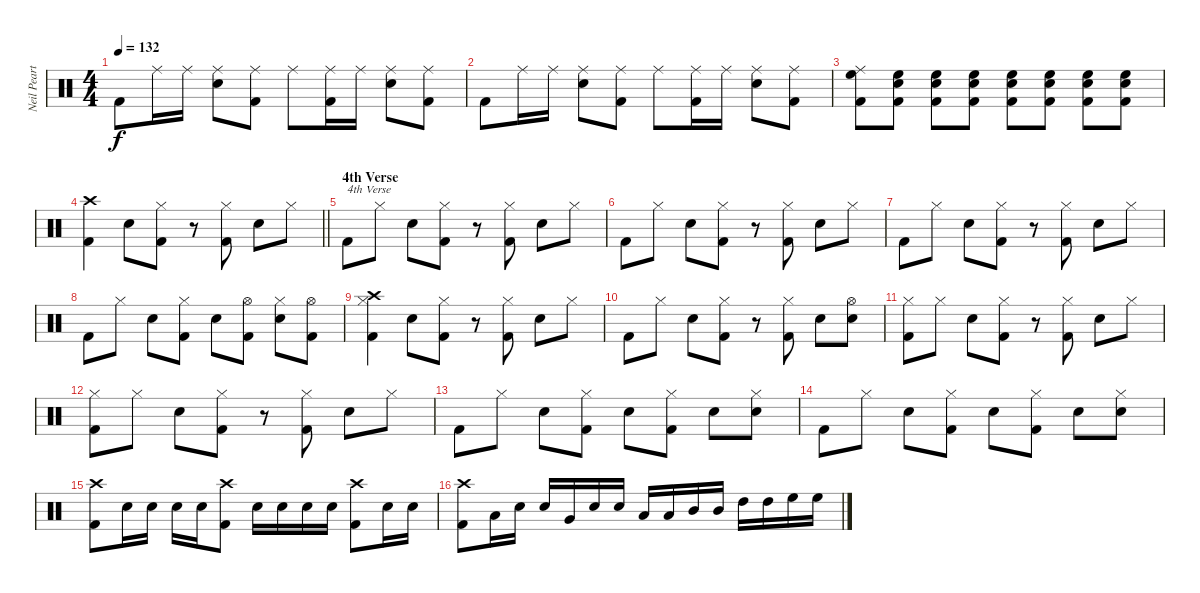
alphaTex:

\track ("Neil Peart" "Neil Peart") {instrument percussion}
\staff {score}
\articulation defaults
\ts (4 4)
\tempo 132
\clef neutral
\ks c "Kick (hit) 2".8{dy f} "Ride (middle)".16 "Ride (middle)".16
("Ride (middle)" "Electric Snare (hit)").8 ("Ride (middle)" "Kick (hit) 2").8 "Ride (middle)".8 ("Ride (middle)" "Kick (hit) 2").16 "Ride (middle)".16 ("Ride (middle)" "Electric Snare (hit)").8 ("Ride (middle)" "Kick (hit) 2").8 |
"Kick (hit) 2".8 "Ride (middle)".16 "Ride (middle)".16 ("Ride (middle)" "Electric Snare (hit)").8 ("Ride (middle)" "Kick (hit) 2").8 "Ride (middle)".8 ("Ride (middle)" "Kick (hit) 2").16 "Ride (middle)".16 ("Ride (middle)" "Electric Snare (hit)").8 ("Ride (middle)" "Kick (hit) 2").8 |
("Ride (middle)" "Kick (hit) 2" "High Floor Tom (hit)").8 ("Electric Snare (hit)" "Kick (hit) 2" "High Floor Tom (hit)").8 ("Electric Snare (hit)" "Kick (hit) 2" "High Floor Tom (hit)").8 ("Electric Snare (hit)" "Kick (hit) 2" "High Floor Tom (hit)").8 ("Electric Snare (hit)" "Kick (hit) 2" "High Floor Tom (hit)").8 ("Electric Snare (hit)" "Kick (hit) 2" "High Floor Tom (hit)").8 ("Electric Snare (hit)" "Kick (hit) 2" "High Floor Tom (hit)").8 ("Electric Snare (hit)" "Kick (hit) 2" "High Floor Tom (hit)").8 |
\barLineRight lightlight
("Crash high (hit)" "Kick (hit) 2").4 "Electric Snare (hit)".8 ("Hi-Hat (closed)" "Kick (hit) 2").8 r.8 ("Hi-Hat (closed)" "Kick (hit) 2").8 "Electric Snare (hit)".8 "Hi-Hat (closed)".8 |
\section ("" "4th Verse")
"Kick (hit) 2".8{txt "4th Verse"} "Hi-Hat (closed)".8 "Electric Snare (hit)".8 ("Hi-Hat (closed)" "Kick (hit) 2").8 r.8 ("Hi-Hat (closed)" "Kick (hit) 2").8 "Electric Snare (hit)".8 "Hi-Hat (closed)".8 |
"Kick (hit) 2".8 "Hi-Hat (closed)".8 "Electric Snare (hit)".8 ("Hi-Hat (closed)" "Kick (hit) 2").8 r.8 ("Hi-Hat (closed)" "Kick (hit) 2").8 "Electric Snare (hit)".8 "Hi-Hat (closed)".8 |
"Kick (hit) 2".8 "Hi-Hat (closed)".8 "Electric Snare (hit)".8 ("Hi-Hat (closed)" "Kick (hit) 2").8 r.8 ("Hi-Hat (closed)" "Kick (hit) 2").8 "Electric Snare (hit)".8 "Hi-Hat (closed)".8 |
"Kick (hit) 2".8 "Hi-Hat (closed)".8 "Electric Snare (hit)".8 ("Hi-Hat (closed)" "Kick (hit) 2").8 "Electric Snare (hit)".8 ("Hi-Hat (open)" "Kick (hit) 2").8 ("Hi-Hat (closed)" "Electric Snare (hit)").8 ("Hi-Hat (open)" "Kick (hit) 2").8 |
("Crash high (hit)" "Hi-Hat (closed)" "Kick (hit) 2").4 "Electric Snare (hit)".8 ("Hi-Hat (closed)" "Kick (hit) 2").8 r.8 ("Hi-Hat (closed)" "Kick (hit) 2").8 "Electric Snare (hit)".8 "Hi-Hat (closed)".8 |
"Kick (hit) 2".8 "Hi-Hat (closed)".8 "Electric Snare (hit)".8 ("Hi-Hat (closed)" "Kick (hit) 2").8 r.8 ("Hi-Hat (closed)" "Kick (hit) 2").8 "Electric Snare (hit)".8 ("Hi-Hat (open)" "Electric Snare (hit)").8 |
("Hi-Hat (closed)" "Kick (hit) 2").8 "Hi-Hat (closed)".8 "Electric Snare (hit)".8 ("Hi-Hat (closed)" "Kick (hit) 2").8 r.8 ("Hi-Hat (closed)" "Kick (hit) 2").8 "Electric Snare (hit)".8 "Hi-Hat (closed)".8 |
("Hi-Hat (closed)" "Kick (hit) 2").8 "Hi-Hat (closed)".8 "Electric Snare (hit)".8 ("Hi-Hat (closed)" "Kick (hit) 2").8 r.8 ("Hi-Hat (closed)" "Kick (hit) 2").8 "Electric Snare (hit)".8 "Hi-Hat (closed)".8 |
"Kick (hit) 2".8 "Hi-Hat (closed)".8 "Electric Snare (hit)".8 ("Hi-Hat (closed)" "Kick (hit) 2").8 "Electric Snare (hit)".8 ("Hi-Hat (closed)" "Kick (hit) 2").8 "Electric Snare (hit)".8 ("Hi-Hat (closed)" "Electric Snare (hit)").8 |
"Kick (hit) 2".8 "Hi-Hat (closed)".8 "Electric Snare (hit)".8 ("Hi-Hat (closed)" "Kick (hit) 2").8 "Electric Snare (hit)".8 ("Hi-Hat (closed)" "Kick (hit) 2").8 "Electric Snare (hit)".8 ("Hi-Hat (closed)" "Electric Snare (hit)").8 |
("Crash high (hit)" "Kick (hit) 2").8 "Electric Snare (hit)".16 "Electric Snare (hit)".16 "Electric Snare (hit)".16 "Electric Snare (hit)".16 ("Crash high (hit)" "Kick (hit) 2").8 "Electric Snare (hit)".16 "Electric Snare (hit)".16 "Electric Snare (hit)".16 "Electric Snare (hit)".16 ("Crash high (hit)" "Kick (hit) 2").8 "Electric Snare (hit)".16 "Electric Snare (hit)".16 |
("Crash high (hit)" "Kick (hit) 2").8 "Low Tom (hit)".16 "Electric Snare (hit)".16 "Electric Snare (hit)".16 "Very Low Tom (hit)".16 "Electric Snare (hit)".16 "Electric Snare (hit)".16 "Low Tom (hit)".16 "Low Tom (hit)".16 "Mid Tom (hit)".16 "Mid Tom (hit)".16 "High Tom (hit)".16 "High Tom (hit)".16 "High Floor Tom (hit)".16 "High Floor Tom (hit)".16
